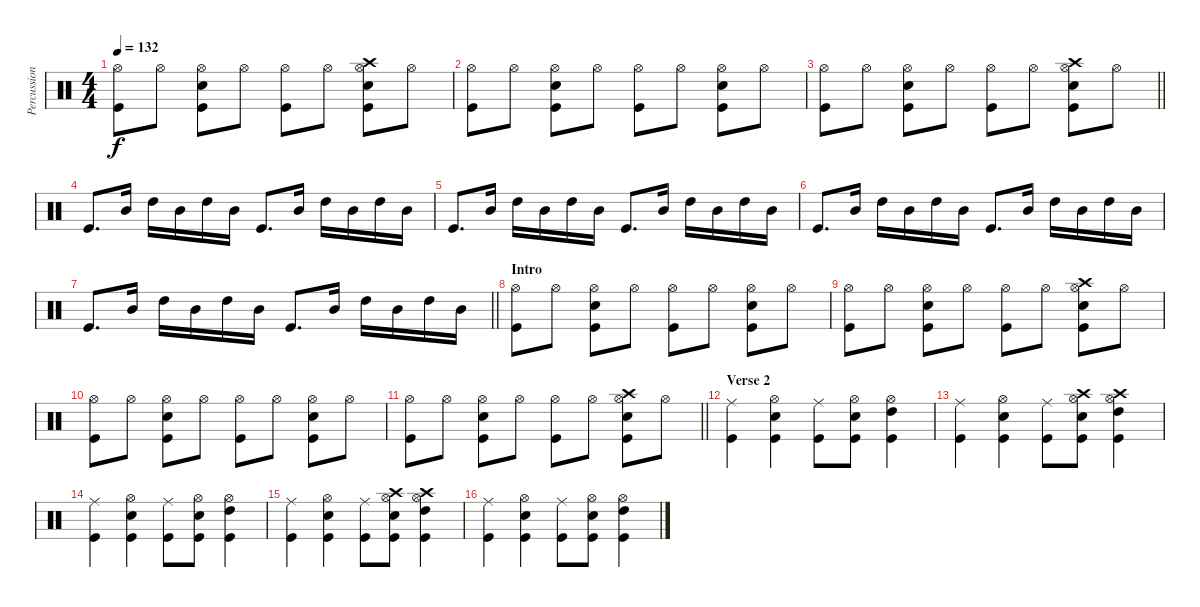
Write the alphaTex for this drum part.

\track ("Percussions" "Percussion") {instrument percussion}
\staff {score}
\articulation defaults
\ts (4 4)
\tempo 132
\clef neutral
\ks c
("Hi-Hat (open)" "Kick (hit)").8{dy f} "Hi-Hat (open)".8 ("Snare (hit) 2" "Hi-Hat (open)" "Kick (hit)").8 "Hi-Hat (open)".8 ("Hi-Hat (open)" "Kick (hit)").8 "Hi-Hat (open)".8 ("Snare (hit) 2" "Hi-Hat (open)" "Crash high (hit)" "Kick (hit)").8 "Hi-Hat (open)".8 |
("Hi-Hat (open)" "Kick (hit)").8 "Hi-Hat (open)".8 ("Snare (hit) 2" "Hi-Hat (open)" "Kick (hit)").8 "Hi-Hat (open)".8 ("Hi-Hat (open)" "Kick (hit)").8 "Hi-Hat (open)".8 ("Snare (hit) 2" "Hi-Hat (open)" "Kick (hit)").8 "Hi-Hat (open)".8 |
\barLineRight lightlight
("Hi-Hat (open)" "Kick (hit)").8 "Hi-Hat (open)".8 ("Snare (hit) 2" "Hi-Hat (open)" "Kick (hit)").8 "Hi-Hat (open)".8 ("Hi-Hat (open)" "Kick (hit)").8 "Hi-Hat (open)".8 ("Snare (hit) 2" "Hi-Hat (open)" "Crash high (hit)" "Kick (hit)").8 "Hi-Hat (open)".8 |
"Kick (hit)".8{d} "Mid Tom (hit)".16 "High Tom (hit)".16 "Mid Tom (hit)".16 "High Tom (hit)".16 "Mid Tom (hit)".16 "Kick (hit)".8{d} "Mid Tom (hit)".16 "High Tom (hit)".16 "Mid Tom (hit)".16 "High Tom (hit)".16 "Mid Tom (hit)".16 |
"Kick (hit)".8{d} "Mid Tom (hit)".16 "High Tom (hit)".16 "Mid Tom (hit)".16 "High Tom (hit)".16 "Mid Tom (hit)".16 "Kick (hit)".8{d} "Mid Tom (hit)".16 "High Tom (hit)".16 "Mid Tom (hit)".16 "High Tom (hit)".16 "Mid Tom (hit)".16 |
"Kick (hit)".8{d} "Mid Tom (hit)".16 "High Tom (hit)".16 "Mid Tom (hit)".16 "High Tom (hit)".16 "Mid Tom (hit)".16 "Kick (hit)".8{d} "Mid Tom (hit)".16 "High Tom (hit)".16 "Mid Tom (hit)".16 "High Tom (hit)".16 "Mid Tom (hit)".16 |
\barLineRight lightlight "Kick (hit)".8{d} "Mid Tom (hit)".16 "High Tom (hit)".16 "Mid Tom (hit)".16 "High Tom (hit)".16 "Mid Tom (hit)".16 "Kick (hit)".8{d} "Mid Tom (hit)".16 "High Tom (hit)".16 "Mid Tom (hit)".16 "High Tom (hit)".16 "Mid Tom (hit)".16
|
\section ("" "Intro")
("Hi-Hat (open)" "Kick (hit)").8 "Hi-Hat (open)".8 ("Snare (hit) 2" "Hi-Hat (open)" "Kick (hit)").8 "Hi-Hat (open)".8 ("Hi-Hat (open)" "Kick (hit)").8 "Hi-Hat (open)".8 ("Snare (hit) 2" "Hi-Hat (open)" "Kick (hit)").8 "Hi-Hat (open)".8 |
("Hi-Hat (open)" "Kick (hit)").8 "Hi-Hat (open)".8 ("Snare (hit) 2" "Hi-Hat (open)" "Kick (hit)").8 "Hi-Hat (open)".8 ("Hi-Hat (open)" "Kick (hit)").8 "Hi-Hat (open)".8 ("Snare (hit) 2" "Hi-Hat (open)" "Crash high (hit)" "Kick (hit)").8 "Hi-Hat (open)".8 |
("Hi-Hat (open)" "Kick (hit)").8 "Hi-Hat (open)".8 ("Snare (hit) 2" "Hi-Hat (open)" "Kick (hit)").8 "Hi-Hat (open)".8 ("Hi-Hat (open)" "Kick (hit)").8 "Hi-Hat (open)".8 ("Snare (hit) 2" "Hi-Hat (open)" "Kick (hit)").8 "Hi-Hat (open)".8 |
\barLineRight lightlight
("Hi-Hat (open)" "Kick (hit)").8 "Hi-Hat (open)".8 ("Snare (hit) 2" "Hi-Hat (open)" "Kick (hit)").8 "Hi-Hat (open)".8 ("Hi-Hat (open)" "Kick (hit)").8 "Hi-Hat (open)".8 ("Snare (hit) 2" "Hi-Hat (open)" "Crash high (hit)" "Kick (hit)").8 "Hi-Hat (open)".8 |
\section ("" "Verse 2")
("Ride (middle)" "Kick (hit)").4 ("Snare (hit) 2" "Hi-Hat (open)" "Kick (hit)").4 ("Ride (middle)" "Kick (hit)").8 ("Snare (hit) 2" "Hi-Hat (open)" "Kick (hit)").8 ("High Tom (hit)" "Hi-Hat (open)" "Kick (hit)").4 |
("Ride (middle)" "Kick (hit)").4 ("Snare (hit) 2" "Hi-Hat (open)" "Kick (hit)").4 ("Ride (middle)" "Kick (hit)").8 ("Snare (hit) 2" "Hi-Hat (open)" "Crash high (hit)" "Kick (hit)").8 ("High Tom (hit)" "Hi-Hat (open)" "Crash high (hit)" "Kick (hit)").4 |
("Ride (middle)" "Kick (hit)").4 ("Snare (hit) 2" "Hi-Hat (open)" "Kick (hit)").4 ("Ride (middle)" "Kick (hit)").8 ("Snare (hit) 2" "Hi-Hat (open)" "Kick (hit)").8 ("High Tom (hit)" "Hi-Hat (open)" "Kick (hit)").4 |
("Ride (middle)" "Kick (hit)").4 ("Snare (hit) 2" "Hi-Hat (open)" "Kick (hit)").4 ("Ride (middle)" "Kick (hit)").8 ("Snare (hit) 2" "Hi-Hat (open)" "Crash high (hit)" "Kick (hit)").8 ("High Tom (hit)" "Hi-Hat (open)" "Crash high (hit)" "Kick (hit)").4 |
("Ride (middle)" "Kick (hit)").4 ("Snare (hit) 2" "Hi-Hat (open)" "Kick (hit)").4 ("Ride (middle)" "Kick (hit)").8 ("Snare (hit) 2" "Hi-Hat (open)" "Kick (hit)").8 ("High Tom (hit)" "Hi-Hat (open)" "Kick (hit)").4
